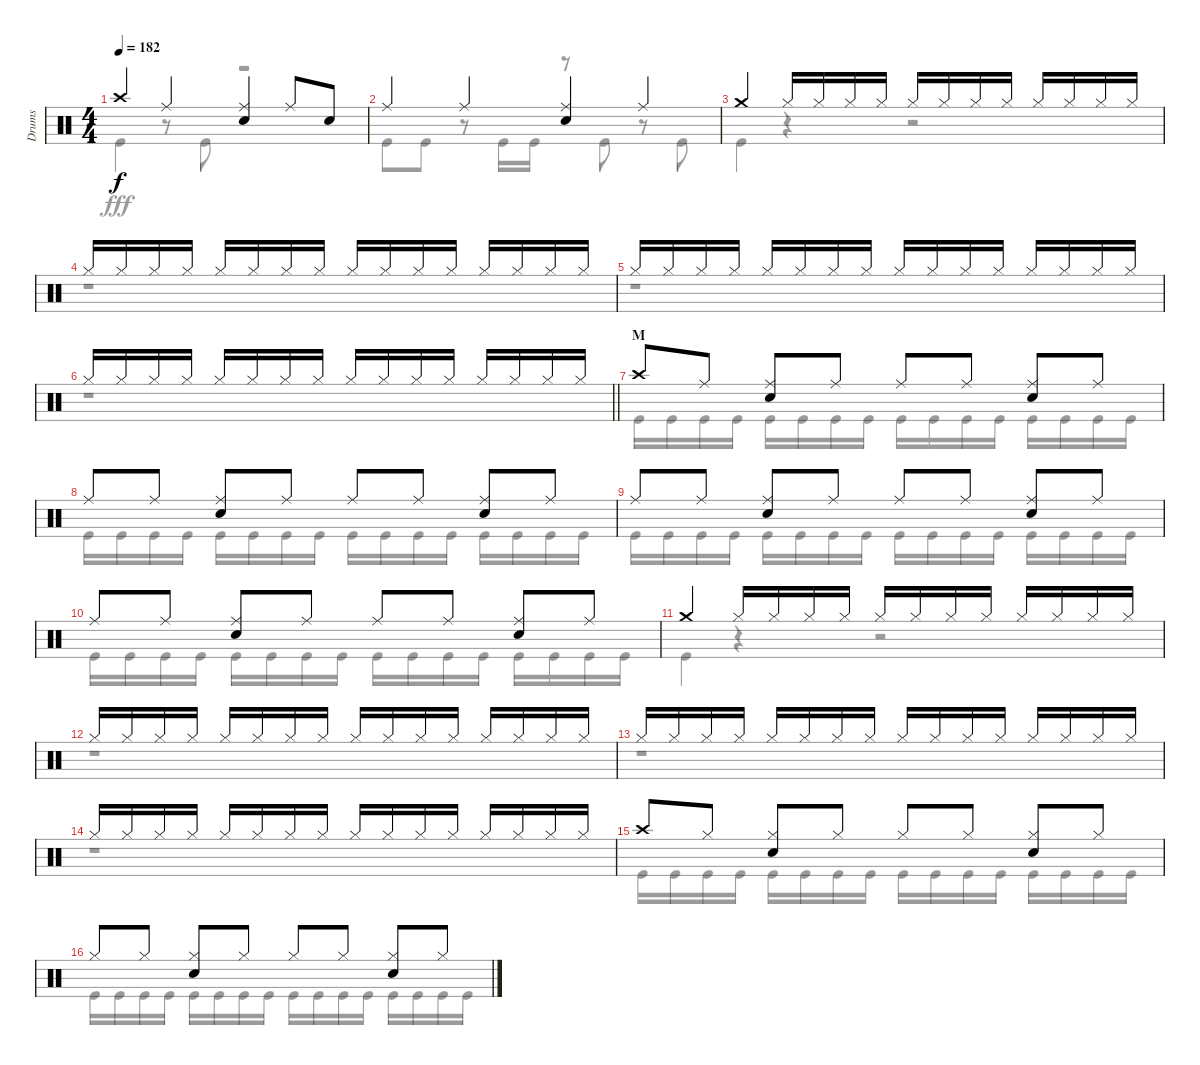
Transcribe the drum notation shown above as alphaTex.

\track ("Drums" "Drums") {instrument percussion}
\staff {score}
\articulation defaults
\voice
\ts (4 4)
\tempo 182
\clef neutral
\ks c "Crash high (hit)".4{dy f} "Ride (middle)".4
("Ride (middle)" "Snare (hit) 2").4 "Ride (middle)".8 "Snare (hit) 2".8 |
"Ride (middle)".4 "Ride (middle)".4 ("Ride (middle)" "Snare (hit) 2").4 "Ride (middle)".4 |
"Crash medium (hit)".4 "Hi-Hat (closed)".16 "Hi-Hat (closed)".16 "Hi-Hat (closed)".16 "Hi-Hat (closed)".16 "Hi-Hat (closed)".16 "Hi-Hat (closed)".16 "Hi-Hat (closed)".16 "Hi-Hat (closed)".16 "Hi-Hat (closed)".16 "Hi-Hat (closed)".16 "Hi-Hat (closed)".16 "Hi-Hat (closed)".16 |
"Hi-Hat (closed)".16 "Hi-Hat (closed)".16 "Hi-Hat (closed)".16 "Hi-Hat (closed)".16 "Hi-Hat (closed)".16 "Hi-Hat (closed)".16 "Hi-Hat (closed)".16 "Hi-Hat (closed)".16 "Hi-Hat (closed)".16 "Hi-Hat (closed)".16 "Hi-Hat (closed)".16 "Hi-Hat (closed)".16 "Hi-Hat (closed)".16 "Hi-Hat (closed)".16 "Hi-Hat (closed)".16 "Hi-Hat (closed)".16 |
"Hi-Hat (closed)".16 "Hi-Hat (closed)".16 "Hi-Hat (closed)".16 "Hi-Hat (closed)".16 "Hi-Hat (closed)".16 "Hi-Hat (closed)".16 "Hi-Hat (closed)".16 "Hi-Hat (closed)".16 "Hi-Hat (closed)".16 "Hi-Hat (closed)".16 "Hi-Hat (closed)".16 "Hi-Hat (closed)".16 "Hi-Hat (closed)".16 "Hi-Hat (closed)".16 "Hi-Hat (closed)".16 "Hi-Hat (closed)".16 |
\barLineRight lightlight "Hi-Hat (closed)".16 "Hi-Hat (closed)".16 "Hi-Hat (closed)".16 "Hi-Hat (closed)".16 "Hi-Hat (closed)".16 "Hi-Hat (closed)".16 "Hi-Hat (closed)".16 "Hi-Hat (closed)".16 "Hi-Hat (closed)".16 "Hi-Hat (closed)".16 "Hi-Hat (closed)".16 "Hi-Hat (closed)".16 "Hi-Hat (closed)".16 "Hi-Hat (closed)".16 "Hi-Hat (closed)".16 "Hi-Hat (closed)".16
|
\section ("" "M")
"Crash high (hit)".8 "Ride (middle)".8 ("Ride (middle)" "Snare (hit) 2").8 "Ride (middle)".8 "Ride (middle)".8 "Ride (middle)".8 ("Ride (middle)" "Snare (hit) 2").8 "Ride (middle)".8 |
"Ride (middle)".8 "Ride (middle)".8 ("Ride (middle)" "Snare (hit) 2").8 "Ride (middle)".8 "Ride (middle)".8 "Ride (middle)".8 ("Ride (middle)" "Snare (hit) 2").8 "Ride (middle)".8 |
"Ride (middle)".8 "Ride (middle)".8 ("Ride (middle)" "Snare (hit) 2").8 "Ride (middle)".8 "Ride (middle)".8 "Ride (middle)".8 ("Ride (middle)" "Snare (hit) 2").8 "Ride (middle)".8 |
"Ride (middle)".8 "Ride (middle)".8 ("Ride (middle)" "Snare (hit) 2").8 "Ride (middle)".8 "Ride (middle)".8 "Ride (middle)".8 ("Ride (middle)" "Snare (hit) 2").8 "Ride (middle)".8 |
"Crash medium (hit)".4 "Hi-Hat (closed)".16 "Hi-Hat (closed)".16 "Hi-Hat (closed)".16 "Hi-Hat (closed)".16 "Hi-Hat (closed)".16 "Hi-Hat (closed)".16 "Hi-Hat (closed)".16 "Hi-Hat (closed)".16 "Hi-Hat (closed)".16 "Hi-Hat (closed)".16 "Hi-Hat (closed)".16 "Hi-Hat (closed)".16 |
"Hi-Hat (closed)".16 "Hi-Hat (closed)".16 "Hi-Hat (closed)".16 "Hi-Hat (closed)".16 "Hi-Hat (closed)".16 "Hi-Hat (closed)".16 "Hi-Hat (closed)".16 "Hi-Hat (closed)".16 "Hi-Hat (closed)".16 "Hi-Hat (closed)".16 "Hi-Hat (closed)".16 "Hi-Hat (closed)".16 "Hi-Hat (closed)".16 "Hi-Hat (closed)".16 "Hi-Hat (closed)".16 "Hi-Hat (closed)".16 |
"Hi-Hat (closed)".16 "Hi-Hat (closed)".16 "Hi-Hat (closed)".16 "Hi-Hat (closed)".16 "Hi-Hat (closed)".16 "Hi-Hat (closed)".16 "Hi-Hat (closed)".16 "Hi-Hat (closed)".16 "Hi-Hat (closed)".16 "Hi-Hat (closed)".16 "Hi-Hat (closed)".16 "Hi-Hat (closed)".16 "Hi-Hat (closed)".16 "Hi-Hat (closed)".16 "Hi-Hat (closed)".16 "Hi-Hat (closed)".16 |
"Hi-Hat (closed)".16 "Hi-Hat (closed)".16 "Hi-Hat (closed)".16 "Hi-Hat (closed)".16 "Hi-Hat (closed)".16 "Hi-Hat (closed)".16 "Hi-Hat (closed)".16 "Hi-Hat (closed)".16 "Hi-Hat (closed)".16 "Hi-Hat (closed)".16 "Hi-Hat (closed)".16 "Hi-Hat (closed)".16 "Hi-Hat (closed)".16 "Hi-Hat (closed)".16 "Hi-Hat (closed)".16 "Hi-Hat (closed)".16 |
"Crash high (hit)".8 "Hi-Hat (closed)".8 ("Hi-Hat (closed)" "Snare (hit) 2").8 "Hi-Hat (closed)".8 "Hi-Hat (closed)".8 "Hi-Hat (closed)".8 ("Hi-Hat (closed)" "Snare (hit) 2").8 "Hi-Hat (closed)".8 |
"Hi-Hat (closed)".8 "Hi-Hat (closed)".8 ("Hi-Hat (closed)" "Snare (hit) 2").8 "Hi-Hat (closed)".8 "Hi-Hat (closed)".8 "Hi-Hat (closed)".8 ("Hi-Hat (closed)" "Snare (hit) 2").8 "Hi-Hat (closed)".8
\voice
\clef neutral
\ottava regular
\simile none
\ks c "Kick (hit)".4{dy fff}
r.8 "Kick (hit)".8 r.2 |
"Kick (hit)".8 "Kick (hit)".8 r.8 "Kick (hit)".16 "Kick (hit)".16 r.8 "Kick (hit)".8 r.8 "Kick (hit)".8 |
"Kick (hit)".4 r.4 r.2 |
r.1 |
r.1 |
\barLineRight lightlight
r.1 |
"Kick (hit)".16 "Kick (hit)".16 "Kick (hit)".16 "Kick (hit)".16 "Kick (hit)".16 "Kick (hit)".16 "Kick (hit)".16 "Kick (hit)".16 "Kick (hit)".16 "Kick (hit)".16 "Kick (hit)".16 "Kick (hit)".16 "Kick (hit)".16 "Kick (hit)".16 "Kick (hit)".16 "Kick (hit)".16 |
"Kick (hit)".16 "Kick (hit)".16 "Kick (hit)".16 "Kick (hit)".16 "Kick (hit)".16 "Kick (hit)".16 "Kick (hit)".16 "Kick (hit)".16 "Kick (hit)".16 "Kick (hit)".16 "Kick (hit)".16 "Kick (hit)".16 "Kick (hit)".16 "Kick (hit)".16 "Kick (hit)".16 "Kick (hit)".16 |
"Kick (hit)".16 "Kick (hit)".16 "Kick (hit)".16 "Kick (hit)".16 "Kick (hit)".16 "Kick (hit)".16 "Kick (hit)".16 "Kick (hit)".16 "Kick (hit)".16 "Kick (hit)".16 "Kick (hit)".16 "Kick (hit)".16 "Kick (hit)".16 "Kick (hit)".16 "Kick (hit)".16 "Kick (hit)".16 |
"Kick (hit)".16 "Kick (hit)".16 "Kick (hit)".16 "Kick (hit)".16 "Kick (hit)".16 "Kick (hit)".16 "Kick (hit)".16 "Kick (hit)".16 "Kick (hit)".16 "Kick (hit)".16 "Kick (hit)".16 "Kick (hit)".16 "Kick (hit)".16 "Kick (hit)".16 "Kick (hit)".16 "Kick (hit)".16 |
"Kick (hit)".4 r.4 r.2 |
r.1 |
r.1 |
r.1 |
"Kick (hit)".16 "Kick (hit)".16 "Kick (hit)".16 "Kick (hit)".16 "Kick (hit)".16 "Kick (hit)".16 "Kick (hit)".16 "Kick (hit)".16 "Kick (hit)".16 "Kick (hit)".16 "Kick (hit)".16 "Kick (hit)".16 "Kick (hit)".16 "Kick (hit)".16 "Kick (hit)".16 "Kick (hit)".16 |
"Kick (hit)".16 "Kick (hit)".16 "Kick (hit)".16 "Kick (hit)".16 "Kick (hit)".16 "Kick (hit)".16 "Kick (hit)".16 "Kick (hit)".16 "Kick (hit)".16 "Kick (hit)".16 "Kick (hit)".16 "Kick (hit)".16 "Kick (hit)".16 "Kick (hit)".16 "Kick (hit)".16 "Kick (hit)".16
